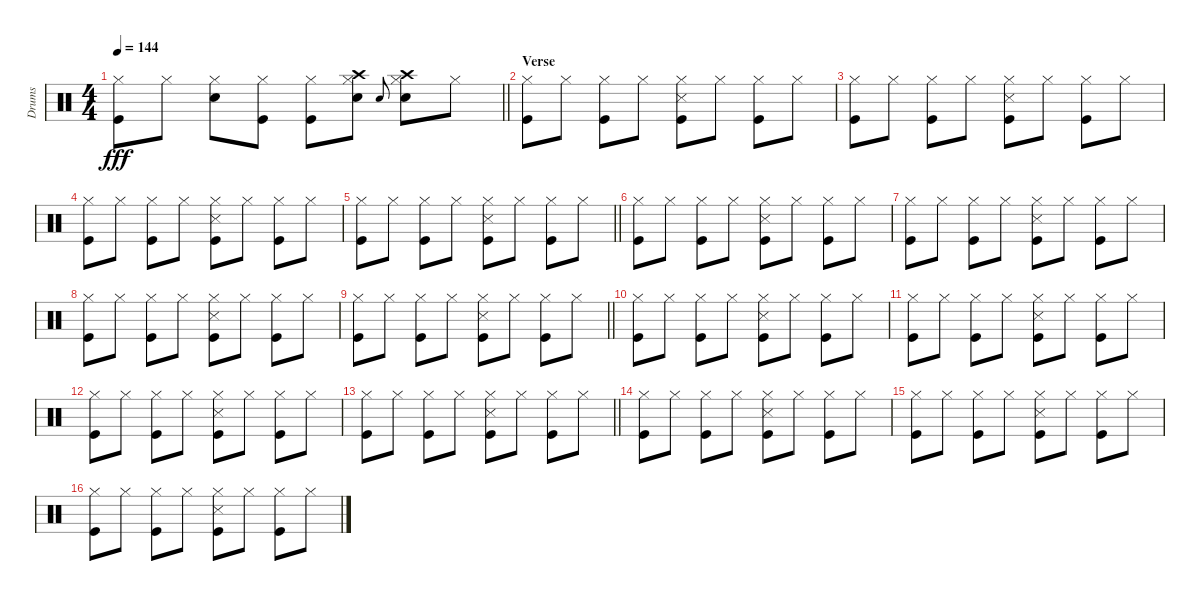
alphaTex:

\track ("Drums" "Drums") {instrument percussion}
\staff {score}
\articulation defaults
\ts (4 4)
\tempo 144
\clef neutral
\barLineRight lightlight
\ks c
("Kick (hit)" "Hi-Hat (closed)").8{dy fff} "Hi-Hat (closed)".8 ("Snare (hit) 2" "Hi-Hat (closed)").8 ("Hi-Hat (closed)" "Kick (hit)").8 ("Hi-Hat (closed)" "Kick (hit)").8 ("Snare (hit) 2" "Hi-Hat (closed)" "Crash high (hit)").8 "Snare (hit) 2".8{gr onbeat} ("Hi-Hat (closed)" "Crash high (hit)" "Snare (hit) 2").8 "Hi-Hat (closed)".8 |
\section ("" "Verse")
("Hi-Hat (closed)" "Kick (hit)").8 "Hi-Hat (closed)".8 ("Hi-Hat (closed)" "Kick (hit)").8 "Hi-Hat (closed)".8 ("Hi-Hat (closed)" "Kick (hit)" "Snare (side stick) 3").8 "Hi-Hat (closed)".8 ("Hi-Hat (closed)" "Kick (hit)").8 "Hi-Hat (closed)".8 |
("Hi-Hat (closed)" "Kick (hit)").8 "Hi-Hat (closed)".8 ("Hi-Hat (closed)" "Kick (hit)").8 "Hi-Hat (closed)".8 ("Kick (hit)" "Hi-Hat (closed)" "Snare (side stick) 3").8 "Hi-Hat (closed)".8 ("Hi-Hat (closed)" "Kick (hit)").8 "Hi-Hat (closed)".8 |
("Hi-Hat (closed)" "Kick (hit)").8 "Hi-Hat (closed)".8 ("Hi-Hat (closed)" "Kick (hit)").8 "Hi-Hat (closed)".8 ("Hi-Hat (closed)" "Kick (hit)" "Snare (side stick) 3").8 "Hi-Hat (closed)".8 ("Hi-Hat (closed)" "Kick (hit)").8 "Hi-Hat (closed)".8 |
\barLineRight lightlight
("Hi-Hat (closed)" "Kick (hit)").8 "Hi-Hat (closed)".8 ("Hi-Hat (closed)" "Kick (hit)").8 "Hi-Hat (closed)".8 ("Hi-Hat (closed)" "Kick (hit)" "Snare (side stick) 3").8 "Hi-Hat (closed)".8 ("Hi-Hat (closed)" "Kick (hit)").8 "Hi-Hat (closed)".8 |
("Hi-Hat (closed)" "Kick (hit)").8 "Hi-Hat (closed)".8 ("Hi-Hat (closed)" "Kick (hit)").8 "Hi-Hat (closed)".8 ("Hi-Hat (closed)" "Kick (hit)" "Snare (side stick) 3").8 "Hi-Hat (closed)".8 ("Hi-Hat (closed)" "Kick (hit)").8 "Hi-Hat (closed)".8 |
("Hi-Hat (closed)" "Kick (hit)").8 "Hi-Hat (closed)".8 ("Hi-Hat (closed)" "Kick (hit)").8 "Hi-Hat (closed)".8 ("Kick (hit)" "Hi-Hat (closed)" "Snare (side stick) 3").8 "Hi-Hat (closed)".8 ("Hi-Hat (closed)" "Kick (hit)").8 "Hi-Hat (closed)".8 |
("Hi-Hat (closed)" "Kick (hit)").8 "Hi-Hat (closed)".8 ("Hi-Hat (closed)" "Kick (hit)").8 "Hi-Hat (closed)".8 ("Hi-Hat (closed)" "Kick (hit)" "Snare (side stick) 3").8 "Hi-Hat (closed)".8 ("Hi-Hat (closed)" "Kick (hit)").8 "Hi-Hat (closed)".8 |
\barLineRight lightlight
("Hi-Hat (closed)" "Kick (hit)").8 "Hi-Hat (closed)".8 ("Hi-Hat (closed)" "Kick (hit)").8 "Hi-Hat (closed)".8 ("Hi-Hat (closed)" "Kick (hit)" "Snare (side stick) 3").8 "Hi-Hat (closed)".8 ("Hi-Hat (closed)" "Kick (hit)").8 "Hi-Hat (closed)".8 |
("Hi-Hat (closed)" "Kick (hit)").8 "Hi-Hat (closed)".8 ("Hi-Hat (closed)" "Kick (hit)").8 "Hi-Hat (closed)".8 ("Hi-Hat (closed)" "Kick (hit)" "Snare (side stick) 3").8 "Hi-Hat (closed)".8 ("Hi-Hat (closed)" "Kick (hit)").8 "Hi-Hat (closed)".8 |
("Hi-Hat (closed)" "Kick (hit)").8 "Hi-Hat (closed)".8 ("Hi-Hat (closed)" "Kick (hit)").8 "Hi-Hat (closed)".8 ("Kick (hit)" "Hi-Hat (closed)" "Snare (side stick) 3").8 "Hi-Hat (closed)".8 ("Hi-Hat (closed)" "Kick (hit)").8 "Hi-Hat (closed)".8 |
("Hi-Hat (closed)" "Kick (hit)").8 "Hi-Hat (closed)".8 ("Hi-Hat (closed)" "Kick (hit)").8 "Hi-Hat (closed)".8 ("Hi-Hat (closed)" "Kick (hit)" "Snare (side stick) 3").8 "Hi-Hat (closed)".8 ("Hi-Hat (closed)" "Kick (hit)").8 "Hi-Hat (closed)".8 |
\barLineRight lightlight
("Hi-Hat (closed)" "Kick (hit)").8 "Hi-Hat (closed)".8 ("Hi-Hat (closed)" "Kick (hit)").8 "Hi-Hat (closed)".8 ("Hi-Hat (closed)" "Kick (hit)" "Snare (side stick) 3").8 "Hi-Hat (closed)".8 ("Hi-Hat (closed)" "Kick (hit)").8 "Hi-Hat (closed)".8 |
("Hi-Hat (closed)" "Kick (hit)").8 "Hi-Hat (closed)".8 ("Hi-Hat (closed)" "Kick (hit)").8 "Hi-Hat (closed)".8 ("Hi-Hat (closed)" "Kick (hit)" "Snare (side stick) 3").8 "Hi-Hat (closed)".8 ("Hi-Hat (closed)" "Kick (hit)").8 "Hi-Hat (closed)".8 |
("Hi-Hat (closed)" "Kick (hit)").8 "Hi-Hat (closed)".8 ("Hi-Hat (closed)" "Kick (hit)").8 "Hi-Hat (closed)".8 ("Kick (hit)" "Hi-Hat (closed)" "Snare (side stick) 3").8 "Hi-Hat (closed)".8 ("Hi-Hat (closed)" "Kick (hit)").8 "Hi-Hat (closed)".8 |
("Hi-Hat (closed)" "Kick (hit)").8 "Hi-Hat (closed)".8 ("Hi-Hat (closed)" "Kick (hit)").8 "Hi-Hat (closed)".8 ("Hi-Hat (closed)" "Kick (hit)" "Snare (side stick) 3").8 "Hi-Hat (closed)".8 ("Hi-Hat (closed)" "Kick (hit)").8 "Hi-Hat (closed)".8
